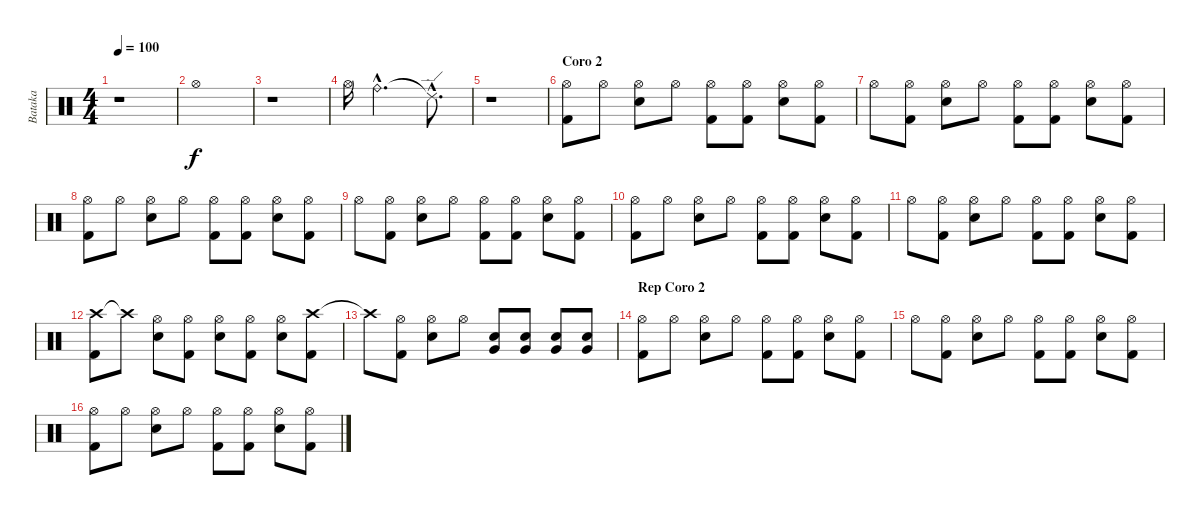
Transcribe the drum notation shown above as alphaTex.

\track ("Bataka" "Bataka") {instrument percussion}
\staff {score}
\articulation defaults
\ts (4 4)
\tempo 100
\clef neutral
\ks c
r.1{dy f} |
"Hi-Hat (open)".1 |
r.1 |
"Hi-Hat (open)".16 "Ride (bell)"{hac}.2{d} "Ride (edge) 2"{hac t}.8{d} |
r.1 |
\section ("" "Coro 2")
("Hi-Hat (open)" "Kick (hit) 2").8 "Hi-Hat (open)".8 ("Hi-Hat (open)" "Snare (hit) 2").8 "Hi-Hat (open)".8 ("Hi-Hat (open)" "Kick (hit) 2").8 ("Hi-Hat (open)" "Kick (hit) 2").8 ("Hi-Hat (open)" "Snare (hit) 2").8 ("Hi-Hat (open)" "Kick (hit) 2").8 |
"Hi-Hat (open)".8 ("Hi-Hat (open)" "Kick (hit) 2").8 ("Hi-Hat (open)" "Snare (hit) 2").8 "Hi-Hat (open)".8 ("Hi-Hat (open)" "Kick (hit) 2").8 ("Hi-Hat (open)" "Kick (hit) 2").8 ("Hi-Hat (open)" "Snare (hit) 2").8 ("Hi-Hat (open)" "Kick (hit) 2").8 |
("Hi-Hat (open)" "Kick (hit) 2").8 "Hi-Hat (open)".8 ("Hi-Hat (open)" "Snare (hit) 2").8 "Hi-Hat (open)".8 ("Hi-Hat (open)" "Kick (hit) 2").8 ("Hi-Hat (open)" "Kick (hit) 2").8 ("Hi-Hat (open)" "Snare (hit) 2").8 ("Hi-Hat (open)" "Kick (hit) 2").8 |
"Hi-Hat (open)".8 ("Hi-Hat (open)" "Kick (hit) 2").8 ("Hi-Hat (open)" "Snare (hit) 2").8 "Hi-Hat (open)".8 ("Hi-Hat (open)" "Kick (hit) 2").8 ("Hi-Hat (open)" "Kick (hit) 2").8 ("Hi-Hat (open)" "Snare (hit) 2").8 ("Hi-Hat (open)" "Kick (hit) 2").8 |
("Hi-Hat (open)" "Kick (hit) 2").8 "Hi-Hat (open)".8 ("Hi-Hat (open)" "Snare (hit) 2").8 "Hi-Hat (open)".8 ("Hi-Hat (open)" "Kick (hit) 2").8 ("Hi-Hat (open)" "Kick (hit) 2").8 ("Hi-Hat (open)" "Snare (hit) 2").8 ("Hi-Hat (open)" "Kick (hit) 2").8 |
"Hi-Hat (open)".8 ("Hi-Hat (open)" "Kick (hit) 2").8 ("Hi-Hat (open)" "Snare (hit) 2").8 "Hi-Hat (open)".8 ("Hi-Hat (open)" "Kick (hit) 2").8 ("Hi-Hat (open)" "Kick (hit) 2").8 ("Hi-Hat (open)" "Snare (hit) 2").8 ("Hi-Hat (open)" "Kick (hit) 2").8 |
("Crash high (hit)" "Kick (hit) 2").8 "Crash high (hit)"{t}.8 ("Hi-Hat (open)" "Snare (hit) 2").8 ("Hi-Hat (open)" "Kick (hit) 2").8 ("Hi-Hat (open)" "Snare (hit) 2").8 ("Hi-Hat (open)" "Kick (hit) 2").8 ("Hi-Hat (open)" "Snare (hit) 2").8 ("Crash high (hit)" "Kick (hit) 2").8 |
"Crash high (hit)"{t}.8 ("Hi-Hat (open)" "Kick (hit) 2").8 ("Hi-Hat (open)" "Snare (hit) 2").8 "Hi-Hat (open)".8 ("Very Low Tom (hit)" "Snare (hit) 2").8 ("Very Low Tom (hit)" "Snare (hit) 2").8 ("Very Low Tom (hit)" "Snare (hit) 2").8 ("Very Low Tom (hit)" "Snare (hit) 2").8 |
\section ("" "Rep Coro 2")
("Hi-Hat (open)" "Kick (hit) 2").8 "Hi-Hat (open)".8 ("Hi-Hat (open)" "Snare (hit) 2").8 "Hi-Hat (open)".8 ("Hi-Hat (open)" "Kick (hit) 2").8 ("Hi-Hat (open)" "Kick (hit) 2").8 ("Hi-Hat (open)" "Snare (hit) 2").8 ("Hi-Hat (open)" "Kick (hit) 2").8 |
"Hi-Hat (open)".8 ("Hi-Hat (open)" "Kick (hit) 2").8 ("Hi-Hat (open)" "Snare (hit) 2").8 "Hi-Hat (open)".8 ("Hi-Hat (open)" "Kick (hit) 2").8 ("Hi-Hat (open)" "Kick (hit) 2").8 ("Hi-Hat (open)" "Snare (hit) 2").8 ("Hi-Hat (open)" "Kick (hit) 2").8 |
("Hi-Hat (open)" "Kick (hit) 2").8 "Hi-Hat (open)".8 ("Hi-Hat (open)" "Snare (hit) 2").8 "Hi-Hat (open)".8 ("Hi-Hat (open)" "Kick (hit) 2").8 ("Hi-Hat (open)" "Kick (hit) 2").8 ("Hi-Hat (open)" "Snare (hit) 2").8 ("Hi-Hat (open)" "Kick (hit) 2").8
